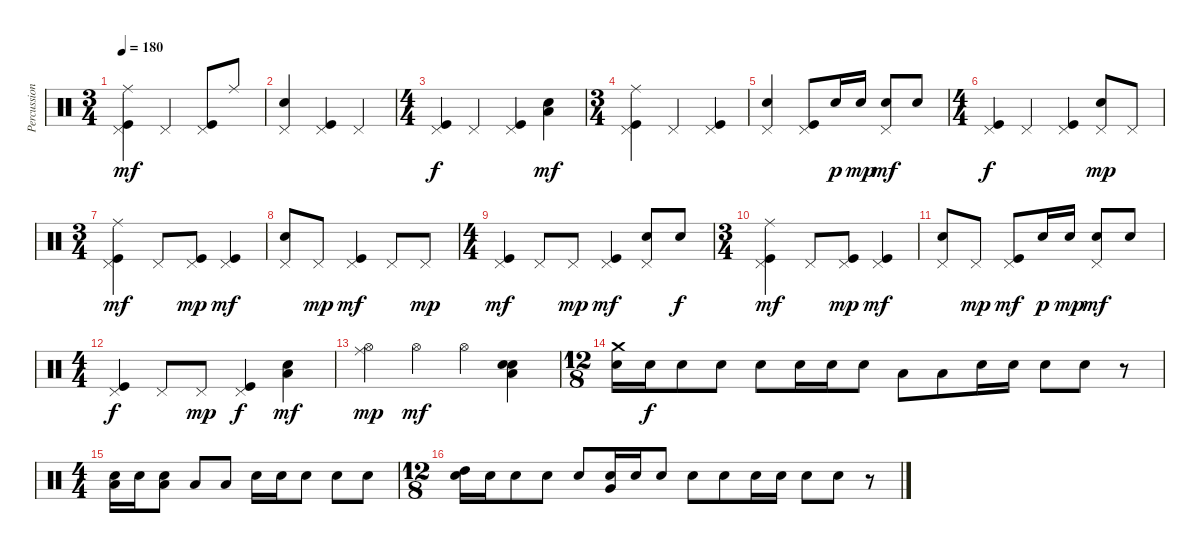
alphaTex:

\track ("Percussion" "Percussion") {instrument percussion}
\staff {score}
\articulation defaults
\ts (3 4)
\tempo 180
\clef neutral
\ks c
("Ride (middle)" "Pedal Hi-Hat (hit)" "Kick (hit)").4{dy mf} "Pedal Hi-Hat (hit)".4 ("Pedal Hi-Hat (hit)" "Kick (hit)").8 "Ride (middle)".8 |
("Pedal Hi-Hat (hit)" "Snare (hit) 2").4 ("Pedal Hi-Hat (hit)" "Kick (hit)").4 "Pedal Hi-Hat (hit)".4 |
\ts (4 4)
("Pedal Hi-Hat (hit)" "Kick (hit)").4{dy f} "Pedal Hi-Hat (hit)".4 ("Pedal Hi-Hat (hit)" "Kick (hit)").4 ("Low Floor Tom (hit)" "Snare (hit) 2").4{dy mf} |
\ts (3 4)
("Ride (middle)" "Pedal Hi-Hat (hit)" "Kick (hit)").4 "Pedal Hi-Hat (hit)".4 ("Pedal Hi-Hat (hit)" "Kick (hit)").4 |
("Pedal Hi-Hat (hit)" "Snare (hit) 2").4 ("Pedal Hi-Hat (hit)" "Kick (hit)").8 "Snare (hit) 2".16{dy p} "Snare (hit) 2".16{dy mp} ("Pedal Hi-Hat (hit)" "Snare (hit) 2").8{dy mf} "Snare (hit) 2".8 |
\ts (4 4)
("Pedal Hi-Hat (hit)" "Kick (hit)").4{dy f} "Pedal Hi-Hat (hit)".4 ("Pedal Hi-Hat (hit)" "Kick (hit)").4 ("Pedal Hi-Hat (hit)" "Snare (hit) 2").8{dy mp} "Pedal Hi-Hat (hit)".8 |
\ts (3 4)
("Ride (middle)" "Pedal Hi-Hat (hit)" "Kick (hit)").4{dy mf} "Pedal Hi-Hat (hit)".8 ("Pedal Hi-Hat (hit)" "Kick (hit)").8{dy mp} ("Pedal Hi-Hat (hit)" "Kick (hit)").4{dy mf} |
("Pedal Hi-Hat (hit)" "Snare (hit) 2").8 "Pedal Hi-Hat (hit)".8{dy mp} ("Pedal Hi-Hat (hit)" "Kick (hit)").4{dy mf} "Pedal Hi-Hat (hit)".8 "Pedal Hi-Hat (hit)".8{dy mp} |
\ts (4 4)
("Pedal Hi-Hat (hit)" "Kick (hit)").4{dy mf} "Pedal Hi-Hat (hit)".8 "Pedal Hi-Hat (hit)".8{dy mp} ("Pedal Hi-Hat (hit)" "Kick (hit)").4{dy mf} ("Pedal Hi-Hat (hit)" "Snare (hit) 2").8 "Snare (hit) 2".8{dy f} |
\ts (3 4)
("Ride (middle)" "Pedal Hi-Hat (hit)" "Kick (hit)").4{dy mf} "Pedal Hi-Hat (hit)".8 ("Pedal Hi-Hat (hit)" "Kick (hit)").8{dy mp} ("Pedal Hi-Hat (hit)" "Kick (hit)").4{dy mf} |
("Pedal Hi-Hat (hit)" "Snare (hit) 2").8 "Pedal Hi-Hat (hit)".8{dy mp} ("Pedal Hi-Hat (hit)" "Kick (hit)").8{dy mf} "Snare (hit) 2".16{dy p} "Snare (hit) 2".16{dy mp} ("Pedal Hi-Hat (hit)" "Snare (hit) 2").8{dy mf} "Snare (hit) 2".8 |
\ts (4 4)
("Pedal Hi-Hat (hit)" "Kick (hit)").4{dy f} "Pedal Hi-Hat (hit)".8 "Pedal Hi-Hat (hit)".8{dy mp} ("Pedal Hi-Hat (hit)" "Kick (hit)").4{dy f} ("Low Floor Tom (hit)" "Snare (hit) 2").4{dy mf} |
("Ride (middle)" "Hi-Hat (open)").4{dy mp} "Hi-Hat (open)".4{dy mf} "Hi-Hat (open)".4 ("Snare (hit) 2" "Low Tom (hit)" "Snare (hit) 2").4 |
\ts (12 8)
("Crash medium (hit)" "Snare (hit) 2").16 "Snare (hit) 2".16{dy f} "Snare (hit) 2".8 "Snare (hit) 2".8 "Snare (hit) 2".8 "Snare (hit) 2".16 "Snare (hit) 2".16 "Snare (hit) 2".8 "Low Floor Tom (hit)".8 "Low Tom (hit)".8 "Snare (hit) 2".16 "Snare (hit) 2".16 "Snare (hit) 2".8 "Snare (hit) 2".8 r.8 |
\ts (4 4)
("Low Floor Tom (hit)" "Snare (hit) 2").16 "Snare (hit) 2".16 ("Low Floor Tom (hit)" "Snare (hit) 2").8 "Low Floor Tom (hit)".8 "Low Floor Tom (hit)".8 "Snare (hit) 2".16 "Snare (hit) 2".16 "Snare (hit) 2".8 "Snare (hit) 2".8 "Snare (hit) 2".8 |
\ts (12 8)
("High Tom (hit)" "Snare (hit) 2").16 "Snare (hit) 2".16 "Snare (hit) 2".8 "Snare (hit) 2".8 "Snare (hit) 2".8 ("Very Low Tom (hit)" "Snare (hit) 2").16 "Snare (hit) 2".16 "Snare (hit) 2".8 "Snare (hit) 2".8 "Snare (hit) 2".8 "Snare (hit) 2".16 "Snare (hit) 2".16 "Snare (hit) 2".8 "Snare (hit) 2".8 r.8
